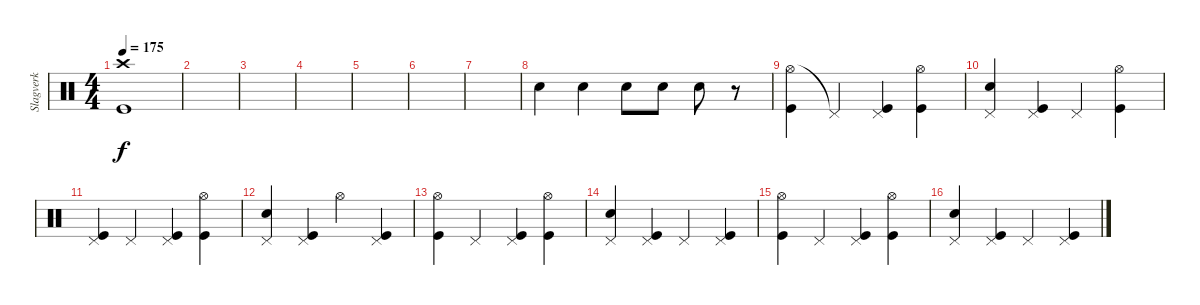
\track ("Slagverk" "Slagverk") {instrument percussion}
\staff {score}
\articulation defaults
\ts (4 4)
\tempo 175
\clef neutral
\ks c
("Crash high (hit)" "Kick (hit)").1{dy f} |
|
|
|
|
|
|
"Electric Snare (hit)".4 "Electric Snare (hit)".4 "Electric Snare (hit)".8 "Electric Snare (hit)".8 "Electric Snare (hit)".8 r.8 |
("Hi-Hat (open)" "Kick (hit)").4 "Pedal Hi-Hat (hit)"{t}.4 ("Pedal Hi-Hat (hit)" "Kick (hit)").4 ("Hi-Hat (open)" "Kick (hit)").4 |
("Pedal Hi-Hat (hit)" "Electric Snare (hit)").4 ("Pedal Hi-Hat (hit)" "Kick (hit)").4 "Pedal Hi-Hat (hit)".4 ("Hi-Hat (open)" "Kick (hit)").4 |
("Pedal Hi-Hat (hit)" "Kick (hit)").4 "Pedal Hi-Hat (hit)".4 ("Pedal Hi-Hat (hit)" "Kick (hit)").4 ("Hi-Hat (open)" "Kick (hit)").4 |
("Pedal Hi-Hat (hit)" "Electric Snare (hit)").4 ("Pedal Hi-Hat (hit)" "Kick (hit)").4 "Hi-Hat (open)".4 ("Pedal Hi-Hat (hit)" "Kick (hit)").4 |
("Hi-Hat (open)" "Kick (hit)").4 "Pedal Hi-Hat (hit)".4 ("Pedal Hi-Hat (hit)" "Kick (hit)").4 ("Hi-Hat (open)" "Kick (hit)").4 |
("Pedal Hi-Hat (hit)" "Electric Snare (hit)").4 ("Pedal Hi-Hat (hit)" "Kick (hit)").4 "Pedal Hi-Hat (hit)".4 ("Pedal Hi-Hat (hit)" "Kick (hit)").4 |
("Hi-Hat (open)" "Kick (hit)").4 "Pedal Hi-Hat (hit)".4 ("Pedal Hi-Hat (hit)" "Kick (hit)").4 ("Hi-Hat (open)" "Kick (hit)").4 |
("Pedal Hi-Hat (hit)" "Electric Snare (hit)").4 ("Pedal Hi-Hat (hit)" "Kick (hit)").4 "Pedal Hi-Hat (hit)".4 ("Pedal Hi-Hat (hit)" "Kick (hit)").4
